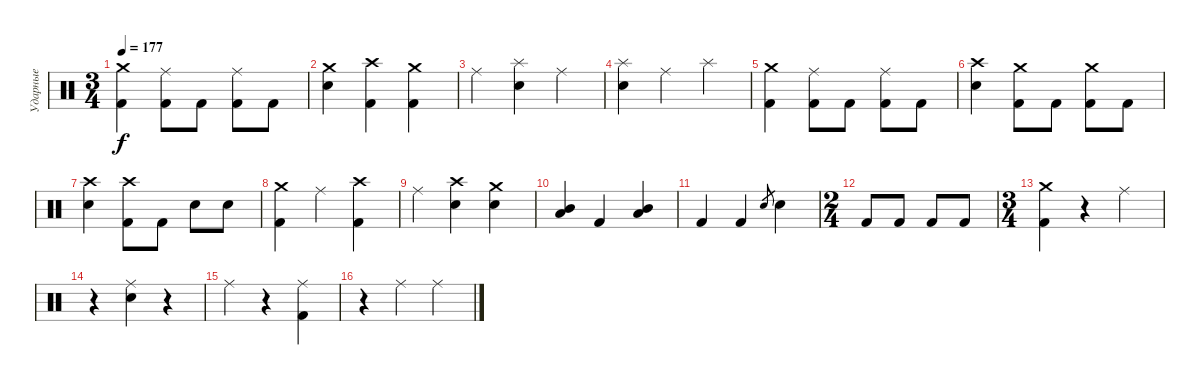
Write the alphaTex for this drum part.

\track ("Ударные" "Ударные") {instrument percussion}
\staff {score}
\articulation defaults
\ts (3 4)
\tempo 177
\clef neutral
\ks c
("Crash medium (hit)" "Kick (hit) 2").4{dy f} ("Ride (middle)" "Kick (hit) 2").8 "Kick (hit) 2".8 ("Ride (middle)" "Kick (hit) 2").8 "Kick (hit) 2".8 |
("Crash medium (hit)" "Snare (hit) 2").4 ("Crash high (hit)" "Kick (hit) 2").4 ("Crash medium (hit)" "Kick (hit) 2").4 |
"Ride (middle)".4 ("Splash (hit)" "Snare (hit) 2").4 "Ride (middle)".4 |
("Splash (hit)" "Snare (hit) 2").4 "Ride (middle)".4 "Splash (hit)".4 |
("Crash medium (hit)" "Kick (hit) 2").4 ("Ride (middle)" "Kick (hit) 2").8 "Kick (hit) 2".8 ("Ride (middle)" "Kick (hit) 2").8 "Kick (hit) 2".8 |
("Crash high (hit)" "Snare (hit) 2").4 ("Crash medium (hit)" "Kick (hit) 2").8 "Kick (hit) 2".8 ("Crash medium (hit)" "Kick (hit) 2").8 "Kick (hit) 2".8 |
("Crash high (hit)" "Snare (hit) 2").4 ("Crash high (hit)" "Kick (hit) 2").8 "Kick (hit) 2".8 "Snare (hit) 2".8 "Snare (hit) 2".8 |
("Crash medium (hit)" "Kick (hit) 2").4 "Ride (middle)".4 ("Crash high (hit)" "Kick (hit) 2").4 |
"Ride (middle)".4 ("Crash high (hit)" "Snare (hit) 2").4 ("Crash medium (hit)" "Snare (hit) 2").4 |
("Mid Tom (hit)" "Low Tom (hit)").4 "Kick (hit) 2".4 ("Mid Tom (hit)" "Low Tom (hit)").4 |
"Kick (hit) 2".4 "Kick (hit) 2".4 "Snare (hit) 2".8{gr} "Snare (hit) 2".4 |
\ts (2 4)
"Kick (hit) 2".8 "Kick (hit) 2".8 "Kick (hit) 2".8 "Kick (hit) 2".8 |
\ts (3 4)
("Crash medium (hit)" "Kick (hit) 2").4 r.4 "Ride (middle)".4 |
r.4 ("Ride (middle)" "Snare (hit) 2").4 r.4 |
"Ride (middle)".4 r.4 ("Ride (middle)" "Kick (hit) 2").4 |
r.4 "Ride (middle)".4 "Ride (middle)".4
